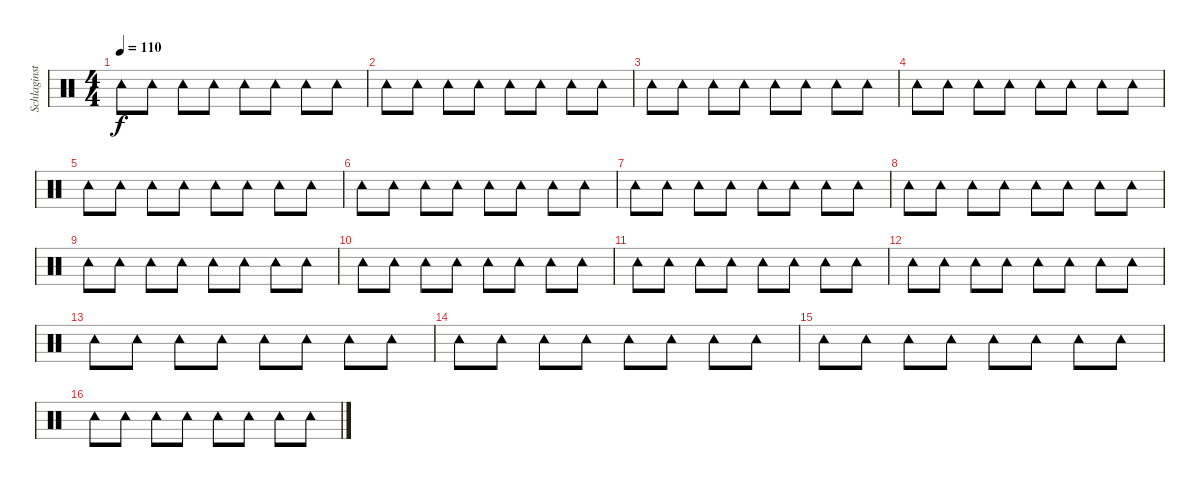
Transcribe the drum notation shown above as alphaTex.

\track ("Schlaginstrumente - Auswahl" "Schlaginst") {instrument percussion}
\staff {score}
\articulation defaults
\ts (4 4)
\tempo 110
\clef neutral
\ks c "Tambourine (hit)".8{dy f balance 16} "Tambourine (hit)".8 "Tambourine (hit)".8 "Tambourine (hit)".8 "Tambourine (hit)".8 "Tambourine (hit)".8 "Tambourine (hit)".8 "Tambourine (hit)".8
|
"Tambourine (hit)".8{balance 16} "Tambourine (hit)".8 "Tambourine (hit)".8 "Tambourine (hit)".8 "Tambourine (hit)".8 "Tambourine (hit)".8 "Tambourine (hit)".8 "Tambourine (hit)".8 |
"Tambourine (hit)".8{balance 16} "Tambourine (hit)".8 "Tambourine (hit)".8 "Tambourine (hit)".8 "Tambourine (hit)".8 "Tambourine (hit)".8 "Tambourine (hit)".8 "Tambourine (hit)".8 |
"Tambourine (hit)".8{balance 16} "Tambourine (hit)".8 "Tambourine (hit)".8 "Tambourine (hit)".8 "Tambourine (hit)".8 "Tambourine (hit)".8 "Tambourine (hit)".8 "Tambourine (hit)".8 |
"Tambourine (hit)".8{balance 16} "Tambourine (hit)".8 "Tambourine (hit)".8 "Tambourine (hit)".8 "Tambourine (hit)".8 "Tambourine (hit)".8 "Tambourine (hit)".8 "Tambourine (hit)".8 |
"Tambourine (hit)".8{balance 16} "Tambourine (hit)".8 "Tambourine (hit)".8 "Tambourine (hit)".8 "Tambourine (hit)".8 "Tambourine (hit)".8 "Tambourine (hit)".8 "Tambourine (hit)".8 |
"Tambourine (hit)".8{balance 16} "Tambourine (hit)".8 "Tambourine (hit)".8 "Tambourine (hit)".8 "Tambourine (hit)".8 "Tambourine (hit)".8 "Tambourine (hit)".8 "Tambourine (hit)".8 |
"Tambourine (hit)".8{balance 16} "Tambourine (hit)".8 "Tambourine (hit)".8 "Tambourine (hit)".8 "Tambourine (hit)".8 "Tambourine (hit)".8 "Tambourine (hit)".8 "Tambourine (hit)".8 |
"Tambourine (hit)".8{balance 16} "Tambourine (hit)".8 "Tambourine (hit)".8 "Tambourine (hit)".8 "Tambourine (hit)".8 "Tambourine (hit)".8 "Tambourine (hit)".8 "Tambourine (hit)".8 |
"Tambourine (hit)".8{balance 16} "Tambourine (hit)".8 "Tambourine (hit)".8 "Tambourine (hit)".8 "Tambourine (hit)".8 "Tambourine (hit)".8 "Tambourine (hit)".8 "Tambourine (hit)".8 |
"Tambourine (hit)".8{balance 16} "Tambourine (hit)".8 "Tambourine (hit)".8 "Tambourine (hit)".8 "Tambourine (hit)".8 "Tambourine (hit)".8 "Tambourine (hit)".8 "Tambourine (hit)".8 |
"Tambourine (hit)".8{balance 16} "Tambourine (hit)".8 "Tambourine (hit)".8 "Tambourine (hit)".8 "Tambourine (hit)".8 "Tambourine (hit)".8 "Tambourine (hit)".8 "Tambourine (hit)".8 |
"Tambourine (hit)".8{balance 16} "Tambourine (hit)".8 "Tambourine (hit)".8 "Tambourine (hit)".8 "Tambourine (hit)".8 "Tambourine (hit)".8 "Tambourine (hit)".8 "Tambourine (hit)".8 |
"Tambourine (hit)".8{balance 16} "Tambourine (hit)".8 "Tambourine (hit)".8 "Tambourine (hit)".8 "Tambourine (hit)".8 "Tambourine (hit)".8 "Tambourine (hit)".8 "Tambourine (hit)".8 |
"Tambourine (hit)".8{balance 16} "Tambourine (hit)".8 "Tambourine (hit)".8 "Tambourine (hit)".8 "Tambourine (hit)".8 "Tambourine (hit)".8 "Tambourine (hit)".8 "Tambourine (hit)".8 |
"Tambourine (hit)".8{balance 16} "Tambourine (hit)".8 "Tambourine (hit)".8 "Tambourine (hit)".8 "Tambourine (hit)".8 "Tambourine (hit)".8 "Tambourine (hit)".8 "Tambourine (hit)".8
